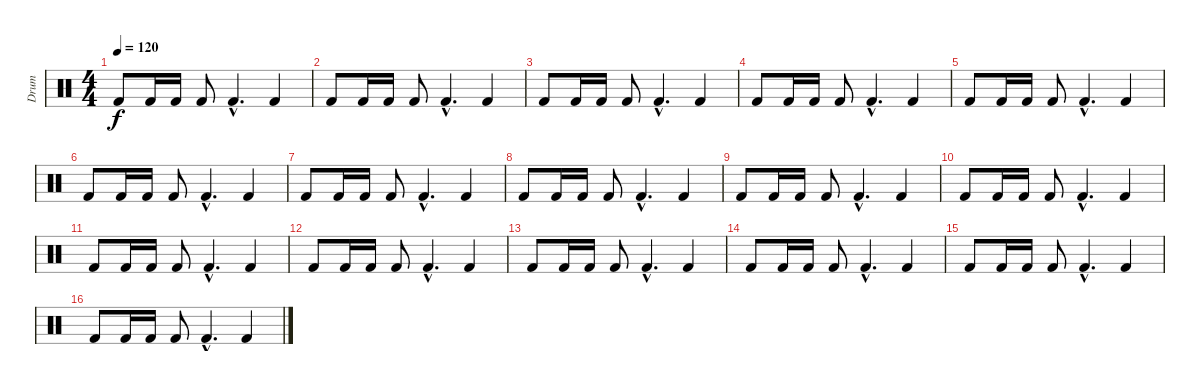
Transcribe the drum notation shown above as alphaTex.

\track ("Drum" "Drum") {instrument percussion}
\staff {score}
\articulation defaults
\ts (4 4)
\tempo 120
\clef neutral
\ks c "Kick (hit) 2".8{dy f} "Kick (hit) 2".16 "Kick (hit) 2".16 "Kick (hit) 2".8 "Kick (hit) 2"{hac}.4{d} "Kick (hit) 2".4
|
"Kick (hit) 2".8 "Kick (hit) 2".16 "Kick (hit) 2".16 "Kick (hit) 2".8 "Kick (hit) 2"{hac}.4{d} "Kick (hit) 2".4 |
"Kick (hit) 2".8 "Kick (hit) 2".16 "Kick (hit) 2".16 "Kick (hit) 2".8 "Kick (hit) 2"{hac}.4{d} "Kick (hit) 2".4 |
"Kick (hit) 2".8 "Kick (hit) 2".16 "Kick (hit) 2".16 "Kick (hit) 2".8 "Kick (hit) 2"{hac}.4{d} "Kick (hit) 2".4 |
"Kick (hit) 2".8 "Kick (hit) 2".16 "Kick (hit) 2".16 "Kick (hit) 2".8 "Kick (hit) 2"{hac}.4{d} "Kick (hit) 2".4 |
"Kick (hit) 2".8 "Kick (hit) 2".16 "Kick (hit) 2".16 "Kick (hit) 2".8 "Kick (hit) 2"{hac}.4{d} "Kick (hit) 2".4 |
"Kick (hit) 2".8 "Kick (hit) 2".16 "Kick (hit) 2".16 "Kick (hit) 2".8 "Kick (hit) 2"{hac}.4{d} "Kick (hit) 2".4 |
"Kick (hit) 2".8 "Kick (hit) 2".16 "Kick (hit) 2".16 "Kick (hit) 2".8 "Kick (hit) 2"{hac}.4{d} "Kick (hit) 2".4 |
"Kick (hit) 2".8 "Kick (hit) 2".16 "Kick (hit) 2".16 "Kick (hit) 2".8 "Kick (hit) 2"{hac}.4{d} "Kick (hit) 2".4 |
"Kick (hit) 2".8 "Kick (hit) 2".16 "Kick (hit) 2".16 "Kick (hit) 2".8 "Kick (hit) 2"{hac}.4{d} "Kick (hit) 2".4 |
"Kick (hit) 2".8 "Kick (hit) 2".16 "Kick (hit) 2".16 "Kick (hit) 2".8 "Kick (hit) 2"{hac}.4{d} "Kick (hit) 2".4 |
"Kick (hit) 2".8 "Kick (hit) 2".16 "Kick (hit) 2".16 "Kick (hit) 2".8 "Kick (hit) 2"{hac}.4{d} "Kick (hit) 2".4 |
"Kick (hit) 2".8 "Kick (hit) 2".16 "Kick (hit) 2".16 "Kick (hit) 2".8 "Kick (hit) 2"{hac}.4{d} "Kick (hit) 2".4 |
"Kick (hit) 2".8 "Kick (hit) 2".16 "Kick (hit) 2".16 "Kick (hit) 2".8 "Kick (hit) 2"{hac}.4{d} "Kick (hit) 2".4 |
"Kick (hit) 2".8 "Kick (hit) 2".16 "Kick (hit) 2".16 "Kick (hit) 2".8 "Kick (hit) 2"{hac}.4{d} "Kick (hit) 2".4 |
"Kick (hit) 2".8 "Kick (hit) 2".16 "Kick (hit) 2".16 "Kick (hit) 2".8 "Kick (hit) 2"{hac}.4{d} "Kick (hit) 2".4
